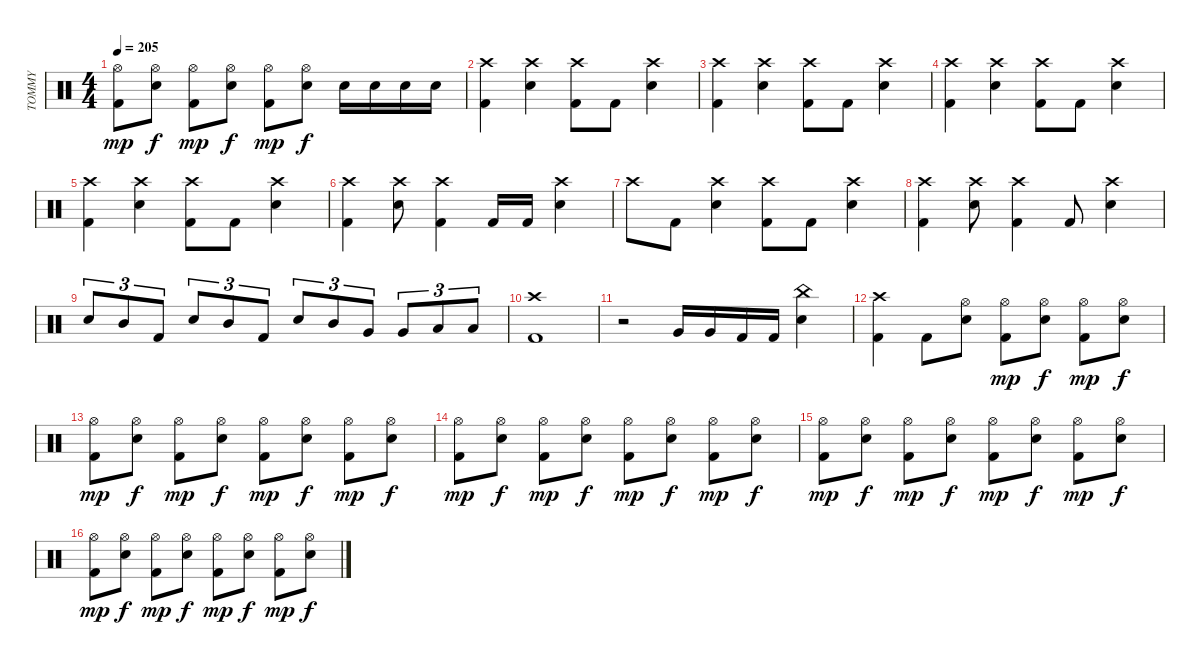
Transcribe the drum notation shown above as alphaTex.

\track ("TOMMY" "TOMMY") {instrument percussion}
\staff {score}
\articulation defaults
\ts (4 4)
\tempo 205
\clef neutral
\ks c
("Kick (hit) 2" "Hi-Hat (open)").8{dy mp} ("Snare (hit) 2" "Hi-Hat (open)").8{dy f} ("Kick (hit) 2" "Hi-Hat (open)").8{dy mp} ("Snare (hit) 2" "Hi-Hat (open)").8{dy f} ("Kick (hit) 2" "Hi-Hat (open)").8{dy mp} ("Snare (hit) 2" "Hi-Hat (open)").8{dy f} "Snare (hit) 2".16 "Snare (hit) 2".16 "Snare (hit) 2".16 "Snare (hit) 2".16 |
("Kick (hit) 2" "Crash high (hit)").4 ("Snare (hit) 2" "Crash high (hit)").4 ("Kick (hit) 2" "Crash high (hit)").8 "Kick (hit) 2".8 ("Snare (hit) 2" "Crash high (hit)").4 |
("Kick (hit) 2" "Crash high (hit)").4 ("Snare (hit) 2" "Crash high (hit)").4 ("Kick (hit) 2" "Crash high (hit)").8 "Kick (hit) 2".8 ("Snare (hit) 2" "Crash high (hit)").4 |
("Kick (hit) 2" "Crash high (hit)").4 ("Snare (hit) 2" "Crash high (hit)").4 ("Kick (hit) 2" "Crash high (hit)").8 "Kick (hit) 2".8 ("Snare (hit) 2" "Crash high (hit)").4 |
("Kick (hit) 2" "Crash high (hit)").4 ("Snare (hit) 2" "Crash high (hit)").4 ("Kick (hit) 2" "Crash high (hit)").8 "Kick (hit) 2".8 ("Snare (hit) 2" "Crash high (hit)").4 |
("Kick (hit) 2" "Crash high (hit)").4 ("Snare (hit) 2" "Crash high (hit)").8 ("Kick (hit) 2" "Crash high (hit)").4 "Kick (hit) 2".16 "Kick (hit) 2".16 ("Snare (hit) 2" "Crash high (hit)").4 |
"Crash high (hit)".8 "Kick (hit) 2".8 ("Snare (hit) 2" "Crash high (hit)").4 ("Kick (hit) 2" "Crash high (hit)").8 "Kick (hit) 2".8 ("Snare (hit) 2" "Crash high (hit)").4 |
("Kick (hit) 2" "Crash high (hit)").4 ("Snare (hit) 2" "Crash high (hit)").8 ("Kick (hit) 2" "Crash high (hit)").4 "Kick (hit) 2".8 ("Snare (hit) 2" "Crash high (hit)").4 |
"Snare (hit) 2".8{tu (3 2)} "Mid Tom (hit)".8{tu (3 2)} "Kick (hit) 2".8{tu (3 2)} "Snare (hit) 2".8{tu (3 2)} "Mid Tom (hit)".8{tu (3 2)} "Kick (hit) 2".8{tu (3 2)} "Snare (hit) 2".8{tu (3 2)} "Mid Tom (hit)".8{tu (3 2)} "Very Low Tom (hit)".8{tu (3 2)} "Very Low Tom (hit)".8{tu (3 2)} "Low Floor Tom (hit)".8{tu (3 2)} "Low Floor Tom (hit)".8{tu (3 2)} |
("Kick (hit) 2" "Crash high (hit)").1 |
r.2 "Very Low Tom (hit)".16 "Very Low Tom (hit)".16 "Kick (hit) 2".16 "Kick (hit) 2".16 ("Snare (hit) 2" "China (hit)").4 |
("Kick (hit) 2" "Crash high (hit)").4 "Kick (hit) 2".8 ("Snare (hit) 2" "Hi-Hat (open)").8 ("Kick (hit) 2" "Hi-Hat (open)").8{dy mp} ("Snare (hit) 2" "Hi-Hat (open)").8{dy f} ("Kick (hit) 2" "Hi-Hat (open)").8{dy mp} ("Snare (hit) 2" "Hi-Hat (open)").8{dy f} |
("Kick (hit) 2" "Hi-Hat (open)").8{dy mp} ("Snare (hit) 2" "Hi-Hat (open)").8{dy f} ("Kick (hit) 2" "Hi-Hat (open)").8{dy mp} ("Snare (hit) 2" "Hi-Hat (open)").8{dy f} ("Kick (hit) 2" "Hi-Hat (open)").8{dy mp} ("Snare (hit) 2" "Hi-Hat (open)").8{dy f} ("Kick (hit) 2" "Hi-Hat (open)").8{dy mp} ("Snare (hit) 2" "Hi-Hat (open)").8{dy f} |
("Kick (hit) 2" "Hi-Hat (open)").8{dy mp} ("Snare (hit) 2" "Hi-Hat (open)").8{dy f} ("Kick (hit) 2" "Hi-Hat (open)").8{dy mp} ("Snare (hit) 2" "Hi-Hat (open)").8{dy f} ("Kick (hit) 2" "Hi-Hat (open)").8{dy mp} ("Snare (hit) 2" "Hi-Hat (open)").8{dy f} ("Kick (hit) 2" "Hi-Hat (open)").8{dy mp} ("Snare (hit) 2" "Hi-Hat (open)").8{dy f} |
("Kick (hit) 2" "Hi-Hat (open)").8{dy mp} ("Snare (hit) 2" "Hi-Hat (open)").8{dy f} ("Kick (hit) 2" "Hi-Hat (open)").8{dy mp} ("Snare (hit) 2" "Hi-Hat (open)").8{dy f} ("Kick (hit) 2" "Hi-Hat (open)").8{dy mp} ("Snare (hit) 2" "Hi-Hat (open)").8{dy f} ("Kick (hit) 2" "Hi-Hat (open)").8{dy mp} ("Snare (hit) 2" "Hi-Hat (open)").8{dy f} |
("Kick (hit) 2" "Hi-Hat (open)").8{dy mp} ("Snare (hit) 2" "Hi-Hat (open)").8{dy f} ("Kick (hit) 2" "Hi-Hat (open)").8{dy mp} ("Snare (hit) 2" "Hi-Hat (open)").8{dy f} ("Kick (hit) 2" "Hi-Hat (open)").8{dy mp} ("Snare (hit) 2" "Hi-Hat (open)").8{dy f} ("Kick (hit) 2" "Hi-Hat (open)").8{dy mp} ("Snare (hit) 2" "Hi-Hat (open)").8{dy f}
